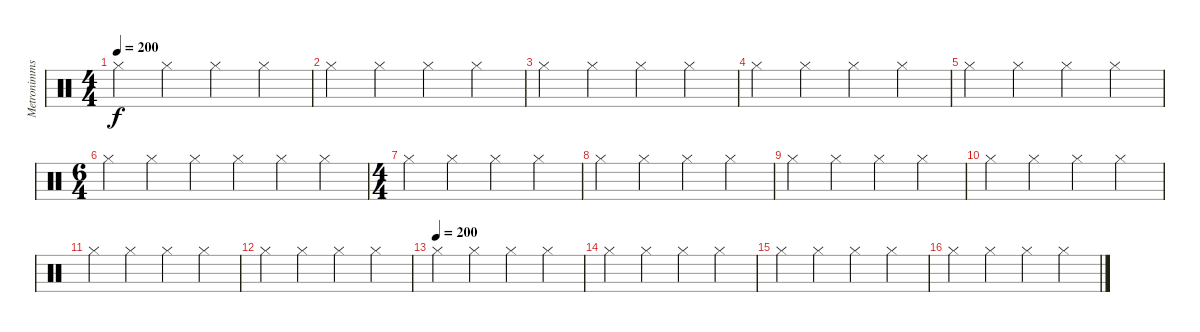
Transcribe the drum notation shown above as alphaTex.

\track ("Metronimms" "Metronimms") {instrument percussion}
\staff {score}
\articulation defaults
\ts (4 4)
\tempo 200
\clef neutral
\ks c "Hi-Hat (closed)".4{dy f} "Hi-Hat (closed)".4 "Hi-Hat (closed)".4 "Hi-Hat (closed)".4
|
"Hi-Hat (closed)".4 "Hi-Hat (closed)".4 "Hi-Hat (closed)".4 "Hi-Hat (closed)".4 |
"Hi-Hat (closed)".4 "Hi-Hat (closed)".4 "Hi-Hat (closed)".4 "Hi-Hat (closed)".4 |
"Hi-Hat (closed)".4 "Hi-Hat (closed)".4 "Hi-Hat (closed)".4 "Hi-Hat (closed)".4 |
"Hi-Hat (closed)".4 "Hi-Hat (closed)".4 "Hi-Hat (closed)".4 "Hi-Hat (closed)".4 |
\ts (6 4)
"Hi-Hat (closed)".4 "Hi-Hat (closed)".4 "Hi-Hat (closed)".4 "Hi-Hat (closed)".4 "Hi-Hat (closed)".4 "Hi-Hat (closed)".4 |
\ts (4 4)
"Hi-Hat (closed)".4 "Hi-Hat (closed)".4 "Hi-Hat (closed)".4 "Hi-Hat (closed)".4 |
"Hi-Hat (closed)".4 "Hi-Hat (closed)".4 "Hi-Hat (closed)".4 "Hi-Hat (closed)".4 |
"Hi-Hat (closed)".4 "Hi-Hat (closed)".4 "Hi-Hat (closed)".4 "Hi-Hat (closed)".4 |
"Hi-Hat (closed)".4 "Hi-Hat (closed)".4 "Hi-Hat (closed)".4 "Hi-Hat (closed)".4 |
"Hi-Hat (closed)".4 "Hi-Hat (closed)".4 "Hi-Hat (closed)".4 "Hi-Hat (closed)".4 |
"Hi-Hat (closed)".4 "Hi-Hat (closed)".4 "Hi-Hat (closed)".4 "Hi-Hat (closed)".4 |
\tempo (200)
"Hi-Hat (closed)".4 "Hi-Hat (closed)".4 "Hi-Hat (closed)".4 "Hi-Hat (closed)".4 |
"Hi-Hat (closed)".4 "Hi-Hat (closed)".4 "Hi-Hat (closed)".4 "Hi-Hat (closed)".4 |
"Hi-Hat (closed)".4 "Hi-Hat (closed)".4 "Hi-Hat (closed)".4 "Hi-Hat (closed)".4 |
"Hi-Hat (closed)".4 "Hi-Hat (closed)".4 "Hi-Hat (closed)".4 "Hi-Hat (closed)".4
